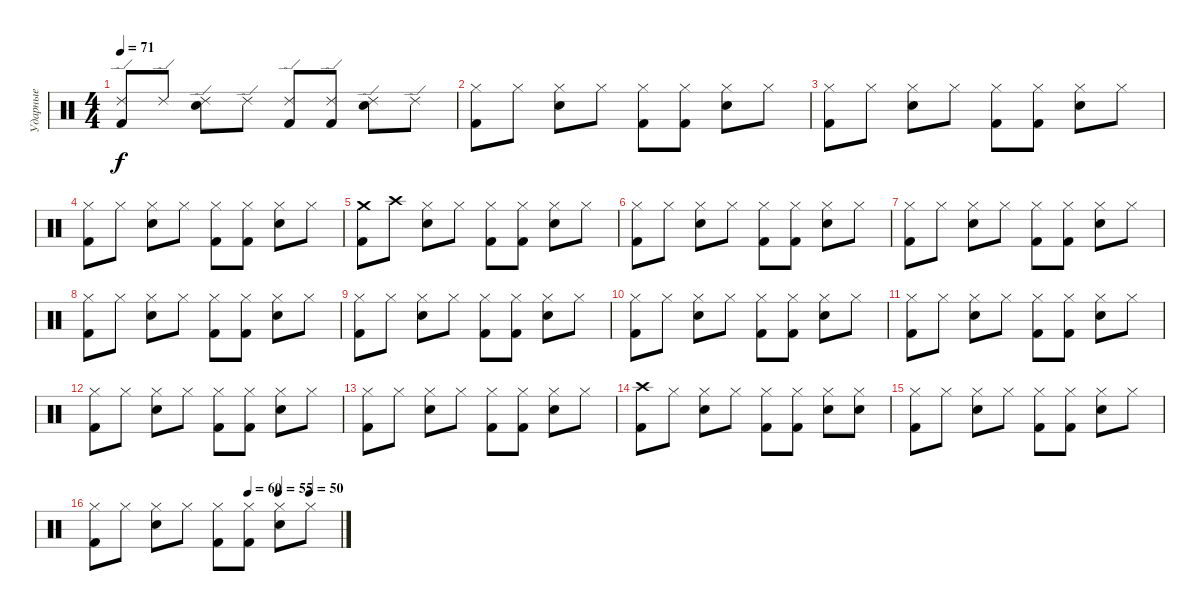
\track ("Ударные" "Ударные") {instrument percussion}
\staff {score}
\articulation defaults
\ts (4 4)
\tempo 71
\clef neutral
\ks c
("Ride (edge) 2" "Kick (hit) 2").8{dy f} "Ride (edge) 2".8 ("Ride (edge) 2" "Snare (hit) 2").8 "Ride (edge) 2".8 ("Ride (edge) 2" "Kick (hit) 2").8 ("Ride (edge) 2" "Kick (hit) 2").8 ("Ride (edge) 2" "Snare (hit) 2").8 "Ride (edge) 2".8 |
("Hi-Hat (closed)" "Kick (hit) 2").8 "Hi-Hat (closed)".8 ("Hi-Hat (closed)" "Snare (hit) 2").8 "Hi-Hat (closed)".8 ("Hi-Hat (closed)" "Kick (hit) 2").8 ("Hi-Hat (closed)" "Kick (hit) 2").8 ("Hi-Hat (closed)" "Snare (hit) 2").8 "Hi-Hat (closed)".8 |
("Hi-Hat (closed)" "Kick (hit) 2").8 "Hi-Hat (closed)".8 ("Hi-Hat (closed)" "Snare (hit) 2").8 "Hi-Hat (closed)".8 ("Hi-Hat (closed)" "Kick (hit) 2").8 ("Hi-Hat (closed)" "Kick (hit) 2").8 ("Hi-Hat (closed)" "Snare (hit) 2").8 "Hi-Hat (closed)".8 |
("Hi-Hat (closed)" "Kick (hit) 2").8 "Hi-Hat (closed)".8 ("Hi-Hat (closed)" "Snare (hit) 2").8 "Hi-Hat (closed)".8 ("Hi-Hat (closed)" "Kick (hit) 2").8 ("Hi-Hat (closed)" "Kick (hit) 2").8 ("Hi-Hat (closed)" "Snare (hit) 2").8 "Hi-Hat (closed)".8 |
("Crash medium (hit)" "Kick (hit) 2").8 "Crash high (hit)".8 ("Hi-Hat (closed)" "Snare (hit) 2").8 "Hi-Hat (closed)".8 ("Hi-Hat (closed)" "Kick (hit) 2").8 ("Hi-Hat (closed)" "Kick (hit) 2").8 ("Hi-Hat (closed)" "Snare (hit) 2").8 "Hi-Hat (closed)".8 |
("Hi-Hat (closed)" "Kick (hit) 2").8 "Hi-Hat (closed)".8 ("Hi-Hat (closed)" "Snare (hit) 2").8 "Hi-Hat (closed)".8 ("Hi-Hat (closed)" "Kick (hit) 2").8 ("Hi-Hat (closed)" "Kick (hit) 2").8 ("Hi-Hat (closed)" "Snare (hit) 2").8 "Hi-Hat (closed)".8 |
("Hi-Hat (closed)" "Kick (hit) 2").8 "Hi-Hat (closed)".8 ("Hi-Hat (closed)" "Snare (hit) 2").8 "Hi-Hat (closed)".8 ("Hi-Hat (closed)" "Kick (hit) 2").8 ("Hi-Hat (closed)" "Kick (hit) 2").8 ("Hi-Hat (closed)" "Snare (hit) 2").8 "Hi-Hat (closed)".8 |
("Hi-Hat (closed)" "Kick (hit) 2").8 "Hi-Hat (closed)".8 ("Hi-Hat (closed)" "Snare (hit) 2").8 "Hi-Hat (closed)".8 ("Hi-Hat (closed)" "Kick (hit) 2").8 ("Hi-Hat (closed)" "Kick (hit) 2").8 ("Hi-Hat (closed)" "Snare (hit) 2").8 "Hi-Hat (closed)".8 |
("Hi-Hat (closed)" "Kick (hit) 2").8 "Hi-Hat (closed)".8 ("Hi-Hat (closed)" "Snare (hit) 2").8 "Hi-Hat (closed)".8 ("Hi-Hat (closed)" "Kick (hit) 2").8 ("Hi-Hat (closed)" "Kick (hit) 2").8 ("Hi-Hat (closed)" "Snare (hit) 2").8 "Hi-Hat (closed)".8 |
("Hi-Hat (closed)" "Kick (hit) 2").8 "Hi-Hat (closed)".8 ("Hi-Hat (closed)" "Snare (hit) 2").8 "Hi-Hat (closed)".8 ("Hi-Hat (closed)" "Kick (hit) 2").8 ("Hi-Hat (closed)" "Kick (hit) 2").8 ("Hi-Hat (closed)" "Snare (hit) 2").8 "Hi-Hat (closed)".8 |
("Hi-Hat (closed)" "Kick (hit) 2").8 "Hi-Hat (closed)".8 ("Hi-Hat (closed)" "Snare (hit) 2").8 "Hi-Hat (closed)".8 ("Hi-Hat (closed)" "Kick (hit) 2").8 ("Hi-Hat (closed)" "Kick (hit) 2").8 ("Hi-Hat (closed)" "Snare (hit) 2").8 "Hi-Hat (closed)".8 |
("Hi-Hat (closed)" "Kick (hit) 2").8 "Hi-Hat (closed)".8 ("Hi-Hat (closed)" "Snare (hit) 2").8 "Hi-Hat (closed)".8 ("Hi-Hat (closed)" "Kick (hit) 2").8 ("Hi-Hat (closed)" "Kick (hit) 2").8 ("Hi-Hat (closed)" "Snare (hit) 2").8 "Hi-Hat (closed)".8 |
("Hi-Hat (closed)" "Kick (hit) 2").8 "Hi-Hat (closed)".8 ("Hi-Hat (closed)" "Snare (hit) 2").8 "Hi-Hat (closed)".8 ("Hi-Hat (closed)" "Kick (hit) 2").8 ("Hi-Hat (closed)" "Kick (hit) 2").8 ("Hi-Hat (closed)" "Snare (hit) 2").8 "Hi-Hat (closed)".8 |
("Crash high (hit)" "Kick (hit) 2").8 "Hi-Hat (closed)".8 ("Hi-Hat (closed)" "Snare (hit) 2").8 "Hi-Hat (closed)".8 ("Hi-Hat (closed)" "Kick (hit) 2").8 ("Hi-Hat (closed)" "Kick (hit) 2").8 ("Hi-Hat (closed)" "Snare (hit) 2").8 ("Hi-Hat (closed)" "Snare (hit) 2").8 |
("Hi-Hat (closed)" "Kick (hit) 2").8 "Hi-Hat (closed)".8 ("Hi-Hat (closed)" "Snare (hit) 2").8 "Hi-Hat (closed)".8 ("Hi-Hat (closed)" "Kick (hit) 2").8 ("Hi-Hat (closed)" "Kick (hit) 2").8 ("Hi-Hat (closed)" "Snare (hit) 2").8 "Hi-Hat (closed)".8 |
\tempo (60 0.625)
\tempo (55 0.75)
\tempo (50 0.875)
("Hi-Hat (closed)" "Kick (hit) 2").8 "Hi-Hat (closed)".8 ("Hi-Hat (closed)" "Snare (hit) 2").8 "Hi-Hat (closed)".8 ("Hi-Hat (closed)" "Kick (hit) 2").8 ("Hi-Hat (closed)" "Kick (hit) 2").8 ("Hi-Hat (closed)" "Snare (hit) 2").8 "Hi-Hat (closed)".8
